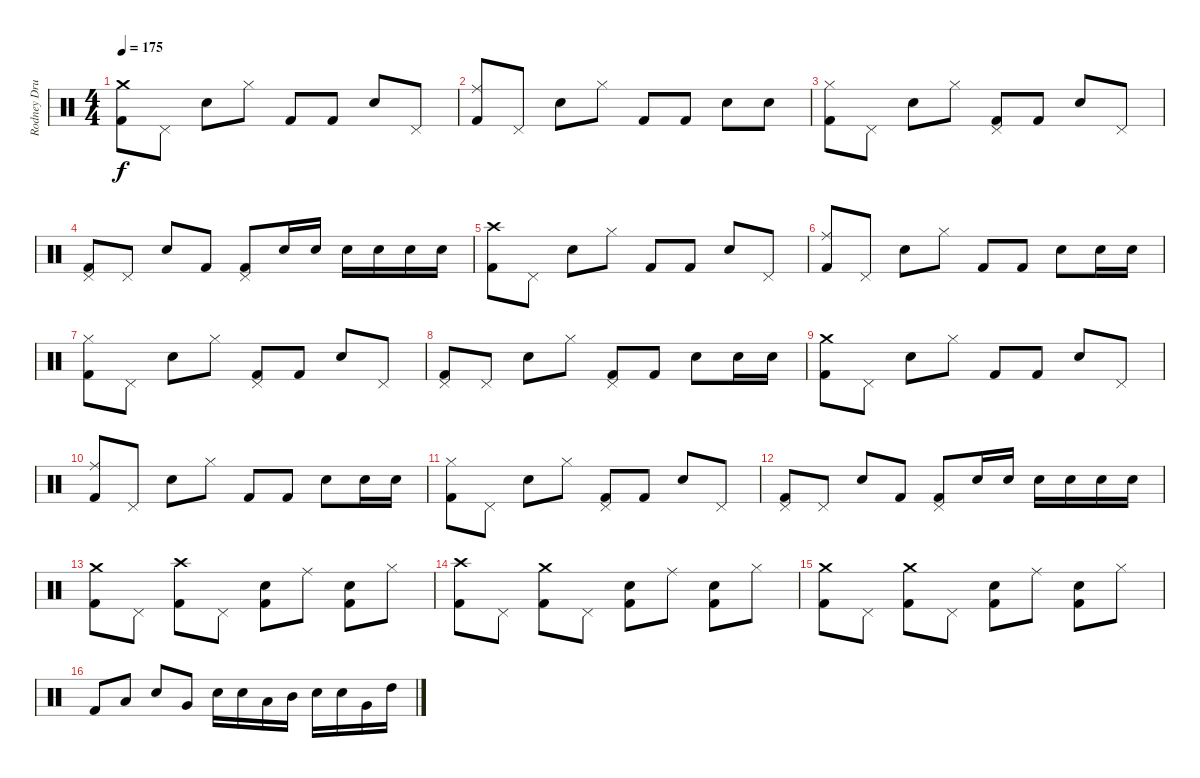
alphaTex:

\track ("Rodney Drums" "Rodney Dru") {instrument percussion}
\staff {score}
\articulation defaults
\ts (4 4)
\tempo 175
\clef neutral
\ks c
("Crash medium (hit)" "Kick (hit) 2").8{dy f} "Pedal Hi-Hat (hit)".8 "Electric Snare (hit)".8 "Hi-Hat (closed)".8 "Kick (hit) 2".8 "Kick (hit) 2".8 "Electric Snare (hit)".8 "Pedal Hi-Hat (hit)".8 |
("Ride (middle)" "Kick (hit) 2").8 "Pedal Hi-Hat (hit)".8 "Electric Snare (hit)".8 "Hi-Hat (closed)".8 "Kick (hit) 2".8 "Kick (hit) 2".8 "Electric Snare (hit)".8 "Electric Snare (hit)".8 |
("Hi-Hat (closed)" "Kick (hit) 2").8 "Pedal Hi-Hat (hit)".8 "Electric Snare (hit)".8 "Hi-Hat (closed)".8 ("Pedal Hi-Hat (hit)" "Kick (hit) 2").8 "Kick (hit) 2".8 "Electric Snare (hit)".8 "Pedal Hi-Hat (hit)".8 |
("Pedal Hi-Hat (hit)" "Kick (hit) 2").8 "Pedal Hi-Hat (hit)".8 "Electric Snare (hit)".8 "Kick (hit) 2".8 ("Pedal Hi-Hat (hit)" "Kick (hit) 2").8 "Electric Snare (hit)".16 "Electric Snare (hit)".16 "Electric Snare (hit)".16 "Electric Snare (hit)".16 "Electric Snare (hit)".16 "Electric Snare (hit)".16 |
("Crash high (hit)" "Kick (hit) 2").8 "Pedal Hi-Hat (hit)".8 "Electric Snare (hit)".8 "Hi-Hat (closed)".8 "Kick (hit) 2".8 "Kick (hit) 2".8 "Electric Snare (hit)".8 "Pedal Hi-Hat (hit)".8 |
("Ride (middle)" "Kick (hit) 2").8 "Pedal Hi-Hat (hit)".8 "Electric Snare (hit)".8 "Hi-Hat (closed)".8 "Kick (hit) 2".8 "Kick (hit) 2".8 "Electric Snare (hit)".8 "Electric Snare (hit)".16 "Electric Snare (hit)".16 |
("Hi-Hat (closed)" "Kick (hit) 2").8 "Pedal Hi-Hat (hit)".8 "Electric Snare (hit)".8 "Hi-Hat (closed)".8 ("Pedal Hi-Hat (hit)" "Kick (hit) 2").8 "Kick (hit) 2".8 "Electric Snare (hit)".8 "Pedal Hi-Hat (hit)".8 |
("Pedal Hi-Hat (hit)" "Kick (hit) 2").8 "Pedal Hi-Hat (hit)".8 "Electric Snare (hit)".8 "Hi-Hat (closed)".8 ("Pedal Hi-Hat (hit)" "Kick (hit) 2").8 "Kick (hit) 2".8 "Electric Snare (hit)".8 "Electric Snare (hit)".16 "Electric Snare (hit)".16 |
("Crash medium (hit)" "Kick (hit) 2").8 "Pedal Hi-Hat (hit)".8 "Electric Snare (hit)".8 "Hi-Hat (closed)".8 "Kick (hit) 2".8 "Kick (hit) 2".8 "Electric Snare (hit)".8 "Pedal Hi-Hat (hit)".8 |
("Ride (middle)" "Kick (hit) 2").8 "Pedal Hi-Hat (hit)".8 "Electric Snare (hit)".8 "Hi-Hat (closed)".8 "Kick (hit) 2".8 "Kick (hit) 2".8 "Electric Snare (hit)".8 "Electric Snare (hit)".16 "Electric Snare (hit)".16 |
("Hi-Hat (closed)" "Kick (hit) 2").8 "Pedal Hi-Hat (hit)".8 "Electric Snare (hit)".8 "Hi-Hat (closed)".8 ("Pedal Hi-Hat (hit)" "Kick (hit) 2").8 "Kick (hit) 2".8 "Electric Snare (hit)".8 "Pedal Hi-Hat (hit)".8 |
("Pedal Hi-Hat (hit)" "Kick (hit) 2").8 "Pedal Hi-Hat (hit)".8 "Electric Snare (hit)".8 "Kick (hit) 2".8 ("Pedal Hi-Hat (hit)" "Kick (hit) 2").8 "Electric Snare (hit)".16 "Electric Snare (hit)".16 "Electric Snare (hit)".16 "Electric Snare (hit)".16 "Electric Snare (hit)".16 "Electric Snare (hit)".16 |
("Crash medium (hit)" "Kick (hit) 2").8 "Pedal Hi-Hat (hit)".8 ("Crash high (hit)" "Kick (hit) 2").8 "Pedal Hi-Hat (hit)".8 ("Electric Snare (hit)" "Kick (hit) 2").8 "Ride (middle)".8 ("Electric Snare (hit)" "Kick (hit) 2").8 "Hi-Hat (closed)".8 |
("Crash high (hit)" "Kick (hit) 2").8 "Pedal Hi-Hat (hit)".8 ("Crash medium (hit)" "Kick (hit) 2").8 "Pedal Hi-Hat (hit)".8 ("Electric Snare (hit)" "Kick (hit) 2").8 "Ride (middle)".8 ("Electric Snare (hit)" "Kick (hit) 2").8 "Hi-Hat (closed)".8 |
("Crash medium (hit)" "Kick (hit) 2").8 "Pedal Hi-Hat (hit)".8 ("Crash medium (hit)" "Kick (hit) 2").8 "Pedal Hi-Hat (hit)".8 ("Electric Snare (hit)" "Kick (hit) 2").8 "Ride (middle)".8 ("Electric Snare (hit)" "Kick (hit) 2").8 "Hi-Hat (closed)".8 |
"Kick (hit) 2".8 "Low Tom (hit)".8 "Electric Snare (hit)".8 "Very Low Tom (hit)".8 "Electric Snare (hit)".16 "Electric Snare (hit)".16 "Low Tom (hit)".16 "Mid Tom (hit)".16 "Electric Snare (hit)".16 "Electric Snare (hit)".16 "Very Low Tom (hit)".16 "High Tom (hit)".16
